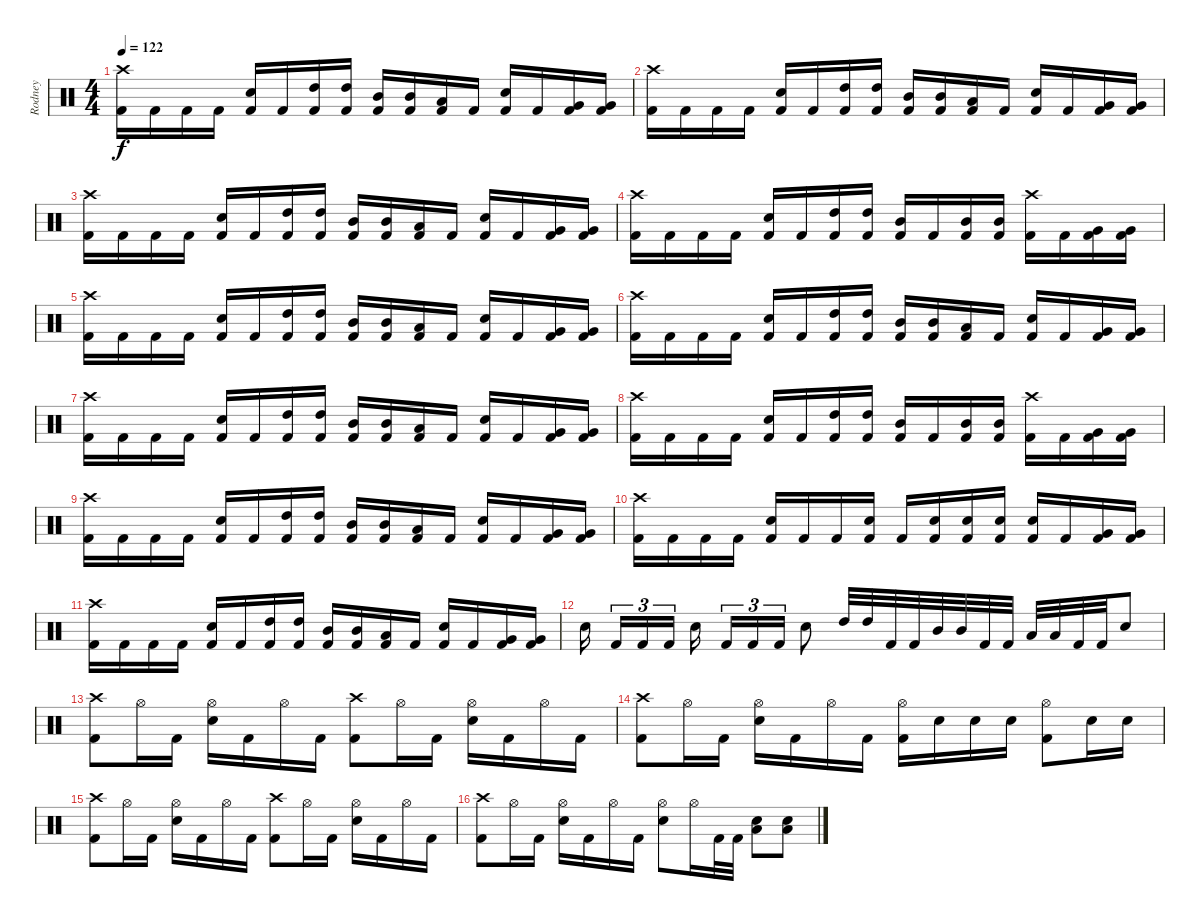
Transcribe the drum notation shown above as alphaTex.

\track ("Rodney" "Rodney") {instrument percussion}
\staff {score}
\articulation defaults
\ts (4 4)
\tempo 122
\clef neutral
\ks c
("Crash high (hit)" "Kick (hit) 2").16{dy f} "Kick (hit) 2".16 "Kick (hit) 2".16 "Kick (hit) 2".16 ("Snare (hit) 2" "Kick (hit) 2").16 "Kick (hit) 2".16 ("High Tom (hit)" "Kick (hit) 2").16 ("High Tom (hit)" "Kick (hit) 2").16 ("Mid Tom (hit)" "Kick (hit) 2").16 ("Mid Tom (hit)" "Kick (hit) 2").16 ("Low Tom (hit)" "Kick (hit) 2").16 "Kick (hit) 2".16 ("Snare (hit) 2" "Kick (hit) 2").16 "Kick (hit) 2".16 ("Very Low Tom (hit)" "Kick (hit) 2").16 ("Very Low Tom (hit)" "Kick (hit) 2").16 |
("Crash high (hit)" "Kick (hit) 2").16 "Kick (hit) 2".16 "Kick (hit) 2".16 "Kick (hit) 2".16 ("Snare (hit) 2" "Kick (hit) 2").16 "Kick (hit) 2".16 ("High Tom (hit)" "Kick (hit) 2").16 ("High Tom (hit)" "Kick (hit) 2").16 ("Mid Tom (hit)" "Kick (hit) 2").16 ("Mid Tom (hit)" "Kick (hit) 2").16 ("Low Tom (hit)" "Kick (hit) 2").16 "Kick (hit) 2".16 ("Snare (hit) 2" "Kick (hit) 2").16 "Kick (hit) 2".16 ("Very Low Tom (hit)" "Kick (hit) 2").16 ("Very Low Tom (hit)" "Kick (hit) 2").16 |
("Crash high (hit)" "Kick (hit) 2").16 "Kick (hit) 2".16 "Kick (hit) 2".16 "Kick (hit) 2".16 ("Snare (hit) 2" "Kick (hit) 2").16 "Kick (hit) 2".16 ("High Tom (hit)" "Kick (hit) 2").16 ("High Tom (hit)" "Kick (hit) 2").16 ("Mid Tom (hit)" "Kick (hit) 2").16 ("Mid Tom (hit)" "Kick (hit) 2").16 ("Low Tom (hit)" "Kick (hit) 2").16 "Kick (hit) 2".16 ("Snare (hit) 2" "Kick (hit) 2").16 "Kick (hit) 2".16 ("Very Low Tom (hit)" "Kick (hit) 2").16 ("Very Low Tom (hit)" "Kick (hit) 2").16 |
("Crash high (hit)" "Kick (hit) 2").16 "Kick (hit) 2".16 "Kick (hit) 2".16 "Kick (hit) 2".16 ("Snare (hit) 2" "Kick (hit) 2").16 "Kick (hit) 2".16 ("High Tom (hit)" "Kick (hit) 2").16 ("High Tom (hit)" "Kick (hit) 2").16 ("Mid Tom (hit)" "Kick (hit) 2").16 "Kick (hit) 2".16 ("Mid Tom (hit)" "Kick (hit) 2").16 ("Mid Tom (hit)" "Kick (hit) 2").16 ("Crash high (hit)" "Kick (hit) 2").16 "Kick (hit) 2".16 ("Very Low Tom (hit)" "Kick (hit) 2").16 ("Very Low Tom (hit)" "Kick (hit) 2").16 |
("Crash high (hit)" "Kick (hit) 2").16 "Kick (hit) 2".16 "Kick (hit) 2".16 "Kick (hit) 2".16 ("Snare (hit) 2" "Kick (hit) 2").16 "Kick (hit) 2".16 ("High Tom (hit)" "Kick (hit) 2").16 ("High Tom (hit)" "Kick (hit) 2").16 ("Mid Tom (hit)" "Kick (hit) 2").16 ("Mid Tom (hit)" "Kick (hit) 2").16 ("Low Tom (hit)" "Kick (hit) 2").16 "Kick (hit) 2".16 ("Snare (hit) 2" "Kick (hit) 2").16 "Kick (hit) 2".16 ("Very Low Tom (hit)" "Kick (hit) 2").16 ("Very Low Tom (hit)" "Kick (hit) 2").16 |
("Crash high (hit)" "Kick (hit) 2").16 "Kick (hit) 2".16 "Kick (hit) 2".16 "Kick (hit) 2".16 ("Snare (hit) 2" "Kick (hit) 2").16 "Kick (hit) 2".16 ("High Tom (hit)" "Kick (hit) 2").16 ("High Tom (hit)" "Kick (hit) 2").16 ("Mid Tom (hit)" "Kick (hit) 2").16 ("Mid Tom (hit)" "Kick (hit) 2").16 ("Low Tom (hit)" "Kick (hit) 2").16 "Kick (hit) 2".16 ("Snare (hit) 2" "Kick (hit) 2").16 "Kick (hit) 2".16 ("Very Low Tom (hit)" "Kick (hit) 2").16 ("Very Low Tom (hit)" "Kick (hit) 2").16 |
("Crash high (hit)" "Kick (hit) 2").16 "Kick (hit) 2".16 "Kick (hit) 2".16 "Kick (hit) 2".16 ("Snare (hit) 2" "Kick (hit) 2").16 "Kick (hit) 2".16 ("High Tom (hit)" "Kick (hit) 2").16 ("High Tom (hit)" "Kick (hit) 2").16 ("Mid Tom (hit)" "Kick (hit) 2").16 ("Mid Tom (hit)" "Kick (hit) 2").16 ("Low Tom (hit)" "Kick (hit) 2").16 "Kick (hit) 2".16 ("Snare (hit) 2" "Kick (hit) 2").16 "Kick (hit) 2".16 ("Very Low Tom (hit)" "Kick (hit) 2").16 ("Very Low Tom (hit)" "Kick (hit) 2").16 |
("Crash high (hit)" "Kick (hit) 2").16 "Kick (hit) 2".16 "Kick (hit) 2".16 "Kick (hit) 2".16 ("Snare (hit) 2" "Kick (hit) 2").16 "Kick (hit) 2".16 ("High Tom (hit)" "Kick (hit) 2").16 ("High Tom (hit)" "Kick (hit) 2").16 ("Mid Tom (hit)" "Kick (hit) 2").16 "Kick (hit) 2".16 ("Mid Tom (hit)" "Kick (hit) 2").16 ("Mid Tom (hit)" "Kick (hit) 2").16 ("Crash high (hit)" "Kick (hit) 2").16 "Kick (hit) 2".16 ("Very Low Tom (hit)" "Kick (hit) 2").16 ("Very Low Tom (hit)" "Kick (hit) 2").16 |
("Crash high (hit)" "Kick (hit) 2").16 "Kick (hit) 2".16 "Kick (hit) 2".16 "Kick (hit) 2".16 ("Snare (hit) 2" "Kick (hit) 2").16 "Kick (hit) 2".16 ("High Tom (hit)" "Kick (hit) 2").16 ("High Tom (hit)" "Kick (hit) 2").16 ("Mid Tom (hit)" "Kick (hit) 2").16 ("Mid Tom (hit)" "Kick (hit) 2").16 ("Low Tom (hit)" "Kick (hit) 2").16 "Kick (hit) 2".16 ("Snare (hit) 2" "Kick (hit) 2").16 "Kick (hit) 2".16 ("Very Low Tom (hit)" "Kick (hit) 2").16 ("Very Low Tom (hit)" "Kick (hit) 2").16 |
("Crash high (hit)" "Kick (hit) 2").16 "Kick (hit) 2".16 "Kick (hit) 2".16 "Kick (hit) 2".16 ("Snare (hit) 2" "Kick (hit) 2").16 "Kick (hit) 2".16 "Kick (hit) 2".16 ("Snare (hit) 2" "Kick (hit) 2").16 "Kick (hit) 2".16 ("Snare (hit) 2" "Kick (hit) 2").16 ("Snare (hit) 2" "Kick (hit) 2").16 ("Snare (hit) 2" "Kick (hit) 2").16 ("Snare (hit) 2" "Kick (hit) 2").16 "Kick (hit) 2".16 ("Very Low Tom (hit)" "Kick (hit) 2").16 ("Very Low Tom (hit)" "Kick (hit) 2").16 |
("Crash high (hit)" "Kick (hit) 2").16 "Kick (hit) 2".16 "Kick (hit) 2".16 "Kick (hit) 2".16 ("Snare (hit) 2" "Kick (hit) 2").16 "Kick (hit) 2".16 ("High Tom (hit)" "Kick (hit) 2").16 ("High Tom (hit)" "Kick (hit) 2").16 ("Mid Tom (hit)" "Kick (hit) 2").16 ("Mid Tom (hit)" "Kick (hit) 2").16 ("Low Tom (hit)" "Kick (hit) 2").16 "Kick (hit) 2".16 ("Snare (hit) 2" "Kick (hit) 2").16 "Kick (hit) 2".16 ("Very Low Tom (hit)" "Kick (hit) 2").16 ("Very Low Tom (hit)" "Kick (hit) 2").16 |
"Snare (hit) 2".16 "Kick (hit) 2".16{tu (3 2)} "Kick (hit) 2".16{tu (3 2)} "Kick (hit) 2".16{tu (3 2)} "Snare (hit) 2".16 "Kick (hit) 2".16{tu (3 2)} "Kick (hit) 2".16{tu (3 2)} "Kick (hit) 2".16{tu (3 2)} "Snare (hit) 2".8 "High Tom (hit)".32 "High Tom (hit)".32 "Kick (hit) 2".32 "Kick (hit) 2".32 "Mid Tom (hit)".32 "Mid Tom (hit)".32 "Kick (hit) 2".32 "Kick (hit) 2".32 "Low Tom (hit)".32 "Low Tom (hit)".32 "Kick (hit) 2".32 "Kick (hit) 2".32 "Snare (hit) 2".8 |
("Crash high (hit)" "Kick (hit) 2").8 "Hi-Hat (open)".16 "Kick (hit) 2".16 ("Hi-Hat (open)" "Snare (hit) 2").16 "Kick (hit) 2".16 "Hi-Hat (open)".16 "Kick (hit) 2".16 ("Crash high (hit)" "Kick (hit) 2").8 "Hi-Hat (open)".16 "Kick (hit) 2".16 ("Hi-Hat (open)" "Snare (hit) 2").16 "Kick (hit) 2".16 "Hi-Hat (open)".16 "Kick (hit) 2".16 |
("Crash high (hit)" "Kick (hit) 2").8 "Hi-Hat (open)".16 "Kick (hit) 2".16 ("Hi-Hat (open)" "Snare (hit) 2").16 "Kick (hit) 2".16 "Hi-Hat (open)".16 "Kick (hit) 2".16 ("Hi-Hat (open)" "Kick (hit) 2").16 "Snare (hit) 2".16 "Snare (hit) 2".16 "Snare (hit) 2".16 ("Hi-Hat (open)" "Kick (hit) 2").8 "Snare (hit) 2".16 "Snare (hit) 2".16 |
("Crash high (hit)" "Kick (hit) 2").8 "Hi-Hat (open)".16 "Kick (hit) 2".16 ("Hi-Hat (open)" "Snare (hit) 2").16 "Kick (hit) 2".16 "Hi-Hat (open)".16 "Kick (hit) 2".16 ("Crash high (hit)" "Kick (hit) 2").8 "Hi-Hat (open)".16 "Kick (hit) 2".16 ("Hi-Hat (open)" "Snare (hit) 2").16 "Kick (hit) 2".16 "Hi-Hat (open)".16 "Kick (hit) 2".16 |
("Crash high (hit)" "Kick (hit) 2").8 "Hi-Hat (open)".16 "Kick (hit) 2".16 ("Hi-Hat (open)" "Snare (hit) 2").16 "Kick (hit) 2".16 "Hi-Hat (open)".16 "Kick (hit) 2".16 ("Hi-Hat (open)" "Snare (hit) 2").8 "Hi-Hat (open)".16 "Kick (hit) 2".32 "Kick (hit) 2".32 ("Low Tom (hit)" "Snare (hit) 2").8 ("Low Tom (hit)" "Snare (hit) 2").8
